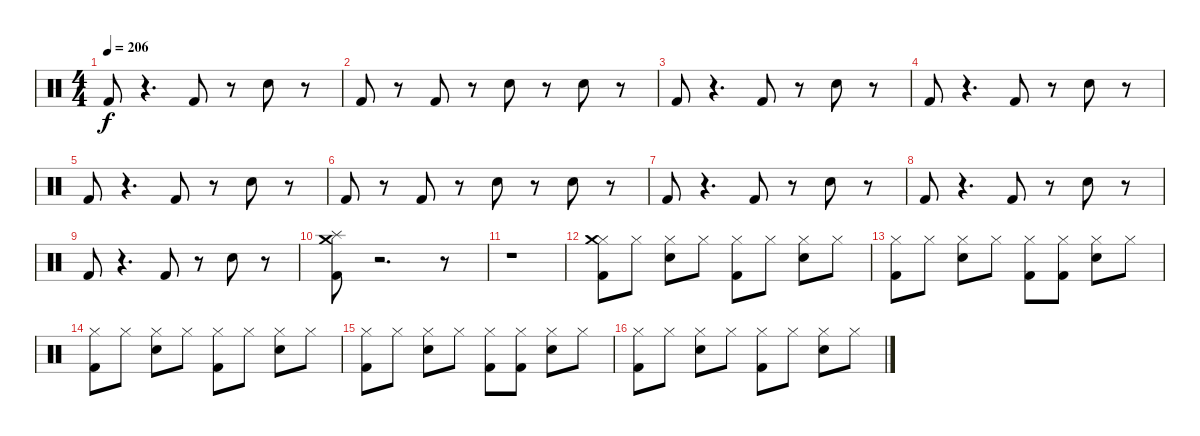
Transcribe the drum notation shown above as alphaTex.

\track "" {instrument percussion}
\staff {score}
\articulation defaults
\ts (4 4)
\tempo 206
\clef neutral
\ks c "Kick (hit) 2".8{dy f}
r.4{d} "Kick (hit) 2".8 r.8 "Electric Snare (hit)".8 r.8 |
"Kick (hit) 2".8 r.8 "Kick (hit) 2".8 r.8 "Electric Snare (hit)".8 r.8 "Electric Snare (hit)".8 r.8 |
"Kick (hit) 2".8 r.4{d} "Kick (hit) 2".8 r.8 "Electric Snare (hit)".8 r.8 |
"Kick (hit) 2".8 r.4{d} "Kick (hit) 2".8 r.8 "Electric Snare (hit)".8 r.8 |
"Kick (hit) 2".8 r.4{d} "Kick (hit) 2".8 r.8 "Electric Snare (hit)".8 r.8 |
"Kick (hit) 2".8 r.8 "Kick (hit) 2".8 r.8 "Electric Snare (hit)".8 r.8 "Electric Snare (hit)".8 r.8 |
"Kick (hit) 2".8 r.4{d} "Kick (hit) 2".8 r.8 "Electric Snare (hit)".8 r.8 |
"Kick (hit) 2".8 r.4{d} "Kick (hit) 2".8 r.8 "Electric Snare (hit)".8 r.8 |
"Kick (hit) 2".8 r.4{d} "Kick (hit) 2".8 r.8 "Electric Snare (hit)".8 r.8 |
("Kick (hit) 2" "Splash (hit)" "Crash medium (hit)").8 r.2{d} r.8 |
r.1 |
("Hi-Hat (closed)" "Crash medium (hit)" "Kick (hit) 2").8 "Hi-Hat (closed)".8 ("Hi-Hat (closed)" "Electric Snare (hit)").8 "Hi-Hat (closed)".8 ("Hi-Hat (closed)" "Kick (hit) 2").8 "Hi-Hat (closed)".8 ("Hi-Hat (closed)" "Electric Snare (hit)").8 "Hi-Hat (closed)".8 |
("Hi-Hat (closed)" "Kick (hit) 2").8 "Hi-Hat (closed)".8 ("Hi-Hat (closed)" "Electric Snare (hit)").8 "Hi-Hat (closed)".8 ("Hi-Hat (closed)" "Kick (hit) 2").8 ("Hi-Hat (closed)" "Kick (hit) 2").8 ("Hi-Hat (closed)" "Electric Snare (hit)").8 "Hi-Hat (closed)".8 |
("Hi-Hat (closed)" "Kick (hit) 2").8 "Hi-Hat (closed)".8 ("Hi-Hat (closed)" "Electric Snare (hit)").8 "Hi-Hat (closed)".8 ("Hi-Hat (closed)" "Kick (hit) 2").8 "Hi-Hat (closed)".8 ("Hi-Hat (closed)" "Electric Snare (hit)").8 "Hi-Hat (closed)".8 |
("Hi-Hat (closed)" "Kick (hit) 2").8 "Hi-Hat (closed)".8 ("Hi-Hat (closed)" "Electric Snare (hit)").8 "Hi-Hat (closed)".8 ("Hi-Hat (closed)" "Kick (hit) 2").8 ("Hi-Hat (closed)" "Kick (hit) 2").8 ("Hi-Hat (closed)" "Electric Snare (hit)").8 "Hi-Hat (closed)".8 |
("Hi-Hat (closed)" "Kick (hit) 2").8 "Hi-Hat (closed)".8 ("Hi-Hat (closed)" "Electric Snare (hit)").8 "Hi-Hat (closed)".8 ("Hi-Hat (closed)" "Kick (hit) 2").8 "Hi-Hat (closed)".8 ("Hi-Hat (closed)" "Electric Snare (hit)").8 "Hi-Hat (closed)".8
